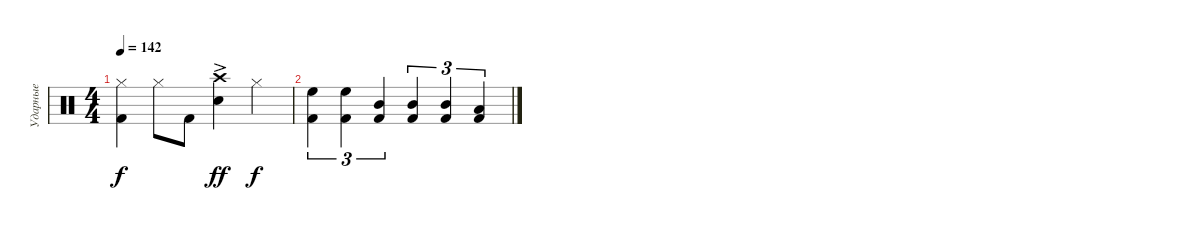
\track ("Ударные" "Ударные") {instrument percussion}
\staff {score}
\articulation defaults
\ts (4 4)
\tempo 142
\clef neutral
\ks c
("Kick (hit) 2" "Hi-Hat (closed)").4{dy f} "Hi-Hat (closed)".8 "Kick (hit) 2".8 ("Snare (hit) 2" "Crash high (hit)"{ac}).4{dy ff} "Hi-Hat (closed)".4{dy f} |
("Kick (hit) 2" "High Floor Tom (hit)").4{tu (3 2)} ("Kick (hit) 2" "High Floor Tom (hit)").4{tu (3 2)} ("Kick (hit) 2" "Mid Tom (hit)").4{tu (3 2)} ("Kick (hit) 2" "Mid Tom (hit)").4{tu (3 2)} ("Kick (hit) 2" "Mid Tom (hit)").4{tu (3 2)} ("Kick (hit) 2" "Low Tom (hit)").4{tu (3 2)}
